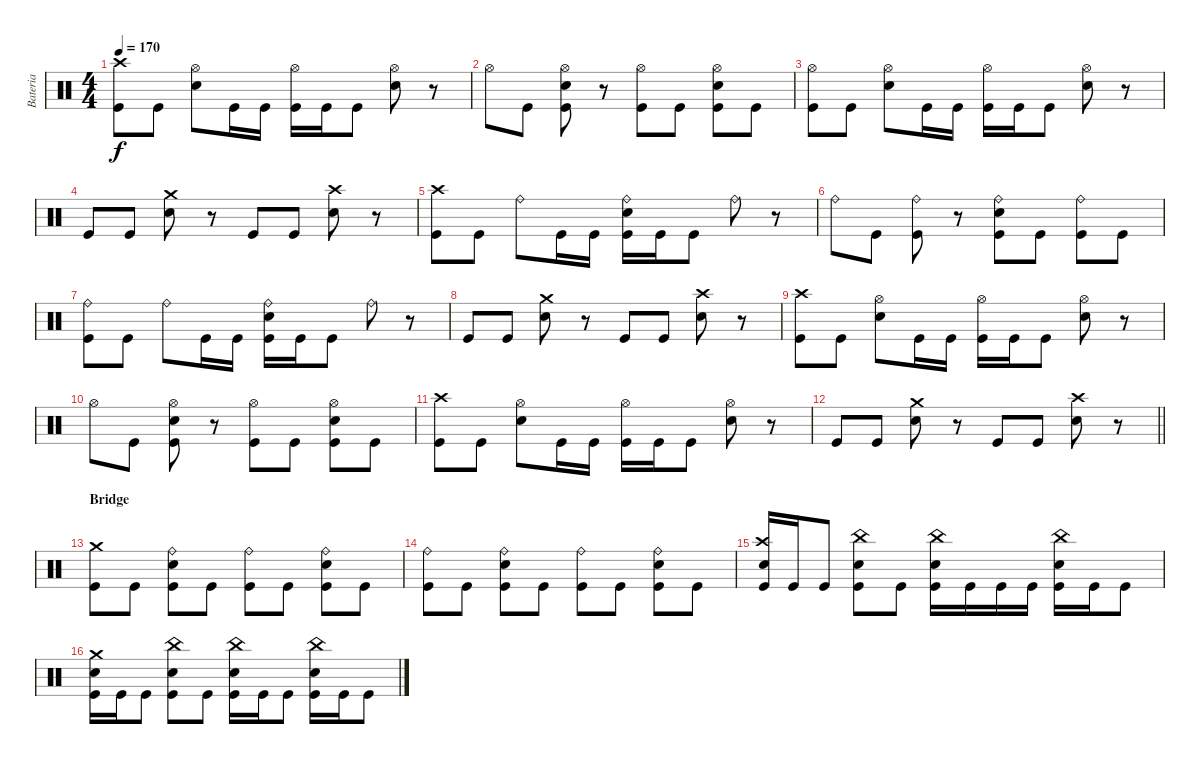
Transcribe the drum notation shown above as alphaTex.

\track ("Bateria" "Bateria") {instrument percussion}
\staff {score}
\articulation defaults
\ts (4 4)
\tempo 170
\clef neutral
\ks c
("Kick (hit)" "Crash high (hit)").8{dy f} "Kick (hit)".8 ("Snare (hit) 2" "Hi-Hat (open)").8 "Kick (hit)".16 "Kick (hit)".16 ("Kick (hit)" "Hi-Hat (open)").16 "Kick (hit)".16 "Kick (hit)".8 ("Snare (hit) 2" "Hi-Hat (open)").8 r.8 |
"Hi-Hat (open)".8 "Kick (hit)".8 ("Snare (hit) 2" "Kick (hit)" "Hi-Hat (open)").8 r.8 ("Kick (hit)" "Hi-Hat (open)").8 "Kick (hit)".8 ("Snare (hit) 2" "Kick (hit)" "Hi-Hat (open)").8 "Kick (hit)".8 |
("Kick (hit)" "Hi-Hat (open)").8 "Kick (hit)".8 ("Snare (hit) 2" "Hi-Hat (open)").8 "Kick (hit)".16 "Kick (hit)".16 ("Kick (hit)" "Hi-Hat (open)").16 "Kick (hit)".16 "Kick (hit)".8 ("Snare (hit) 2" "Hi-Hat (open)").8 r.8 |
"Kick (hit)".8 "Kick (hit)".8 ("Snare (hit) 2" "Crash medium (hit)").8 r.8 "Kick (hit)".8 "Kick (hit)".8 ("Snare (hit) 2" "Crash high (hit)").8 r.8 |
("Kick (hit)" "Crash high (hit)").8 "Kick (hit)".8 "Ride (bell)".8 "Kick (hit)".16 "Kick (hit)".16 ("Snare (hit) 2" "Kick (hit)" "Ride (bell)").16 "Kick (hit)".16 "Kick (hit)".8 "Ride (bell)".8 r.8 |
"Ride (bell)".8 "Kick (hit)".8 ("Kick (hit)" "Ride (bell)").8 r.8 ("Snare (hit) 2" "Kick (hit)" "Ride (bell)").8 "Kick (hit)".8 ("Kick (hit)" "Ride (bell)").8 "Kick (hit)".8 |
("Kick (hit)" "Ride (bell)").8 "Kick (hit)".8 "Ride (bell)".8 "Kick (hit)".16 "Kick (hit)".16 ("Snare (hit) 2" "Kick (hit)" "Ride (bell)").16 "Kick (hit)".16 "Kick (hit)".8 "Ride (bell)".8 r.8 |
"Kick (hit)".8 "Kick (hit)".8 ("Snare (hit) 2" "Crash medium (hit)").8 r.8 "Kick (hit)".8 "Kick (hit)".8 ("Snare (hit) 2" "Crash high (hit)").8 r.8 |
("Kick (hit)" "Crash high (hit)").8 "Kick (hit)".8 ("Snare (hit) 2" "Hi-Hat (open)").8 "Kick (hit)".16 "Kick (hit)".16 ("Kick (hit)" "Hi-Hat (open)").16 "Kick (hit)".16 "Kick (hit)".8 ("Snare (hit) 2" "Hi-Hat (open)").8 r.8 |
"Hi-Hat (open)".8 "Kick (hit)".8 ("Snare (hit) 2" "Kick (hit)" "Hi-Hat (open)").8 r.8 ("Kick (hit)" "Hi-Hat (open)").8 "Kick (hit)".8 ("Snare (hit) 2" "Kick (hit)" "Hi-Hat (open)").8 "Kick (hit)".8 |
("Kick (hit)" "Crash high (hit)").8 "Kick (hit)".8 ("Snare (hit) 2" "Hi-Hat (open)").8 "Kick (hit)".16 "Kick (hit)".16 ("Kick (hit)" "Hi-Hat (open)").16 "Kick (hit)".16 "Kick (hit)".8 ("Snare (hit) 2" "Hi-Hat (open)").8 r.8 |
\barLineRight lightlight "Kick (hit)".8 "Kick (hit)".8
("Snare (hit) 2" "Crash medium (hit)").8 r.8 "Kick (hit)".8 "Kick (hit)".8 ("Snare (hit) 2" "Crash high (hit)").8 r.8 |
\section ("" "Bridge")
("Kick (hit)" "Crash medium (hit)").8 "Kick (hit)".8 ("Snare (hit) 2" "Kick (hit)" "Ride (bell)").8 "Kick (hit)".8 ("Kick (hit)" "Ride (bell)").8 "Kick (hit)".8 ("Snare (hit) 2" "Kick (hit)" "Ride (bell)").8 "Kick (hit)".8 |
("Kick (hit)" "Ride (bell)").8 "Kick (hit)".8 ("Snare (hit) 2" "Kick (hit)" "Ride (bell)").8 "Kick (hit)".8 ("Kick (hit)" "Ride (bell)").8 "Kick (hit)".8 ("Snare (hit) 2" "Kick (hit)" "Ride (bell)").8 "Kick (hit)".8 |
("Snare (hit) 2" "Kick (hit)" "Crash high (hit)").16 "Kick (hit)".16 "Kick (hit)".8 ("Snare (hit) 2" "Kick (hit)" "China (hit)").8 "Kick (hit)".8 ("Snare (hit) 2" "Kick (hit)" "China (hit)").16 "Kick (hit)".16 "Kick (hit)".16 "Kick (hit)".16 ("Snare (hit) 2" "Kick (hit)" "China (hit)").16 "Kick (hit)".16 "Kick (hit)".8 |
("Snare (hit) 2" "Kick (hit)" "Crash medium (hit)").16 "Kick (hit)".16 "Kick (hit)".8 ("Snare (hit) 2" "Kick (hit)" "China (hit)").8 "Kick (hit)".8 ("Snare (hit) 2" "Kick (hit)" "China (hit)").16 "Kick (hit)".16 "Kick (hit)".8 ("Snare (hit) 2" "Kick (hit)" "China (hit)").16 "Kick (hit)".16 "Kick (hit)".8
